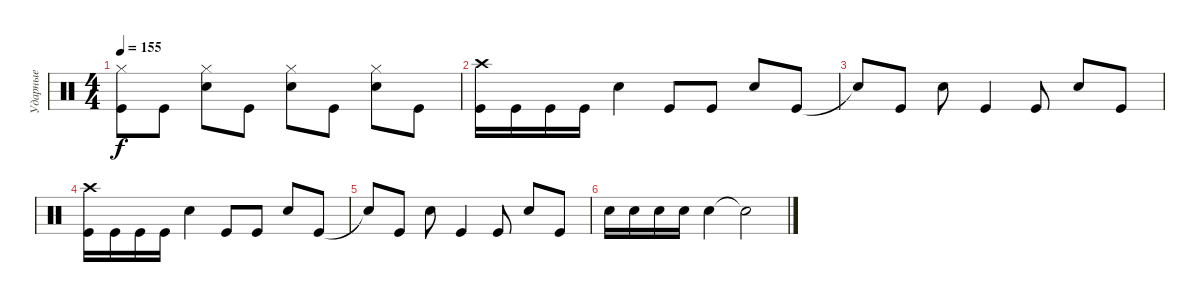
\track ("Ударные" "Ударные") {instrument percussion}
\staff {score}
\articulation defaults
\ts (4 4)
\tempo 155
\clef neutral
\ks c
("Hi-Hat (closed)" "Kick (hit)"{t}).8{dy f} "Kick (hit)".8 ("Hi-Hat (closed)" "Electric Snare (hit)").8 "Kick (hit)".8 ("Hi-Hat (closed)" "Electric Snare (hit)").8 "Kick (hit)".8 ("Hi-Hat (closed)" "Electric Snare (hit)").8 "Kick (hit)".8 |
("Crash high (hit)" "Kick (hit)").16 "Kick (hit)".16 "Kick (hit)".16 "Kick (hit)".16 "Electric Snare (hit)".4 "Kick (hit)".8 "Kick (hit)".8 "Electric Snare (hit)".8 "Kick (hit)".8 |
"Snare (hit)"{t}.8 "Kick (hit)".8 "Electric Snare (hit)".8 "Kick (hit)".4 "Kick (hit)".8 "Electric Snare (hit)".8 "Kick (hit)".8 |
("Crash high (hit)" "Kick (hit)").16 "Kick (hit)".16 "Kick (hit)".16 "Kick (hit)".16 "Electric Snare (hit)".4 "Kick (hit)".8 "Kick (hit)".8 "Electric Snare (hit)".8 "Kick (hit)".8 |
"Snare (hit)"{t}.8 "Kick (hit)".8 "Electric Snare (hit)".8 "Kick (hit)".4 "Kick (hit)".8 "Electric Snare (hit)".8 "Kick (hit)".8 |
"Electric Snare (hit)".16 "Electric Snare (hit)".16 "Electric Snare (hit)".16 "Electric Snare (hit)".16 "Electric Snare (hit)".4 "Snare (hit)"{t}.2
